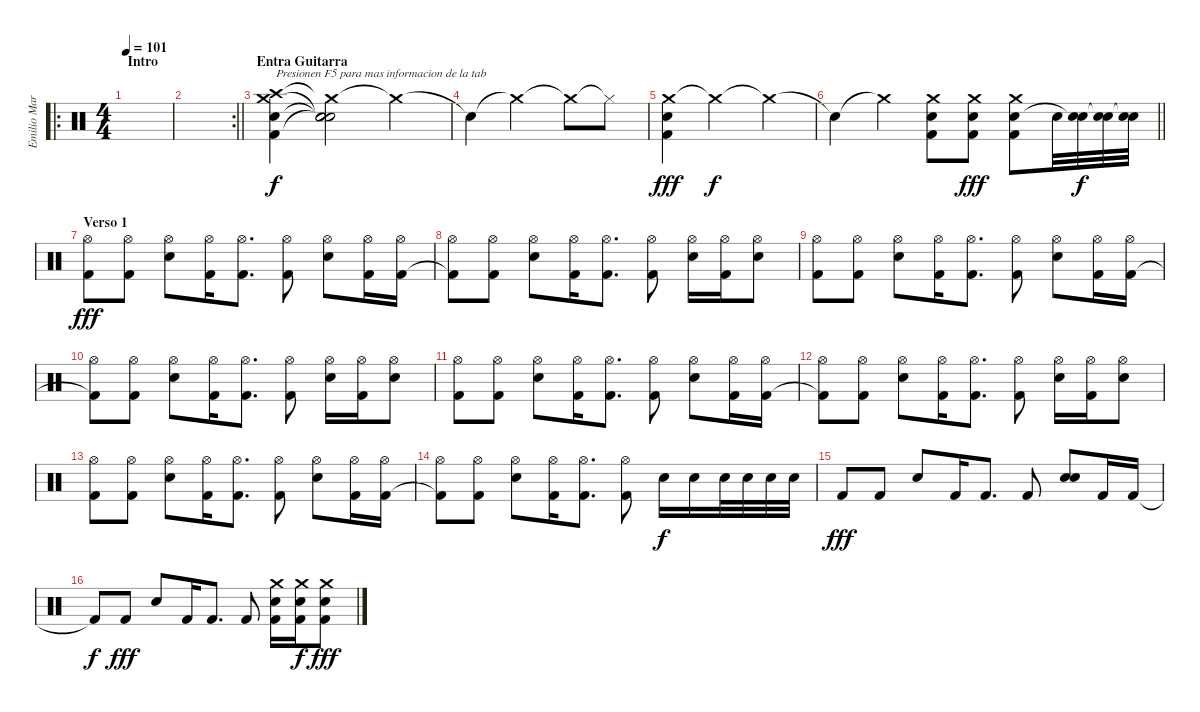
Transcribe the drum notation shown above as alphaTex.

\track ("Emilio Marquez" "Emilio Mar") {instrument percussion}
\staff {score}
\articulation defaults
\ro
\ts (4 4)
\section ("" "Intro")
\tempo 101
\clef neutral
\ks c
|
\rc 2
\barLineRight lightlight
|
\section ("" "Entra Guitarra ")
("Crash high (hit)" "Crash medium (hit)" "Snare (hit) 2" "Kick (hit) 2").4{txt "Presionen F5 para mas informacion de la tab "} ("Crash medium (hit)"{t} "Snare (hit)"{t} "Snare (hit)"{t} "Snare (hit)"{t}).2{dy f} "Crash medium (hit)"{t}.4 |
"Snare (hit)"{t}.4 "Crash medium (hit)"{t}.2 "Crash medium (hit)"{t}.8 "Hi-Hat (closed)"{t}.8 |
("Crash medium (hit)" "Snare (hit) 2" "Kick (hit) 2").4{dy fff} "Crash medium (hit)"{t}.2{dy f} "Crash medium (hit)"{t}.4 |
\barLineRight lightlight "Snare (hit)"{t}.4 "Crash medium (hit)"{t}.4
("Crash medium (hit)" "Snare (hit) 2" "Kick (hit) 2").8 ("Crash medium (hit)" "Snare (hit) 2" "Kick (hit) 2").8{dy fff} ("Crash medium (hit)" "Snare (hit) 2" "Kick (hit) 2").8 "Snare (hit) 2".32 ("Snare (hit) 2" "Snare (hit)"{t}).32{dy f} ("Snare (hit) 2" "Snare (hit)"{t}).32 ("Snare (hit) 2" "Snare (hit)"{t}).32 |
\section ("" "Verso 1")
("Hi-Hat (open)" "Kick (hit) 2").8{dy fff} ("Hi-Hat (open)" "Kick (hit) 2").8 ("Hi-Hat (open)" "Snare (hit) 2").8 ("Hi-Hat (open)" "Kick (hit) 2").16 ("Hi-Hat (open)" "Kick (hit) 2").8{d} ("Hi-Hat (open)" "Kick (hit) 2").8 ("Hi-Hat (open)" "Snare (hit) 2").8 ("Hi-Hat (open)" "Kick (hit) 2").16 ("Hi-Hat (open)" "Kick (hit) 2").16 |
("Hi-Hat (open)" "Kick (hit) 2"{t}).8 ("Hi-Hat (open)" "Kick (hit) 2").8 ("Hi-Hat (open)" "Snare (hit) 2").8 ("Hi-Hat (open)" "Kick (hit) 2").16 ("Hi-Hat (open)" "Kick (hit) 2").8{d} ("Hi-Hat (open)" "Kick (hit) 2").8 ("Hi-Hat (open)" "Snare (hit) 2").16 ("Hi-Hat (open)" "Kick (hit) 2").16 ("Hi-Hat (open)" "Snare (hit) 2").8 |
("Hi-Hat (open)" "Kick (hit) 2").8 ("Hi-Hat (open)" "Kick (hit) 2").8 ("Hi-Hat (open)" "Snare (hit) 2").8 ("Hi-Hat (open)" "Kick (hit) 2").16 ("Hi-Hat (open)" "Kick (hit) 2").8{d} ("Hi-Hat (open)" "Kick (hit) 2").8 ("Hi-Hat (open)" "Snare (hit) 2").8 ("Hi-Hat (open)" "Kick (hit) 2").16 ("Hi-Hat (open)" "Kick (hit) 2").16 |
("Hi-Hat (open)" "Kick (hit) 2"{t}).8 ("Hi-Hat (open)" "Kick (hit) 2").8 ("Hi-Hat (open)" "Snare (hit) 2").8 ("Hi-Hat (open)" "Kick (hit) 2").16 ("Hi-Hat (open)" "Kick (hit) 2").8{d} ("Hi-Hat (open)" "Kick (hit) 2").8 ("Hi-Hat (open)" "Snare (hit) 2").16 ("Hi-Hat (open)" "Kick (hit) 2").16 ("Hi-Hat (open)" "Snare (hit) 2").8 |
("Hi-Hat (open)" "Kick (hit) 2").8 ("Hi-Hat (open)" "Kick (hit) 2").8 ("Hi-Hat (open)" "Snare (hit) 2").8 ("Hi-Hat (open)" "Kick (hit) 2").16 ("Hi-Hat (open)" "Kick (hit) 2").8{d} ("Hi-Hat (open)" "Kick (hit) 2").8 ("Hi-Hat (open)" "Snare (hit) 2").8 ("Hi-Hat (open)" "Kick (hit) 2").16 ("Hi-Hat (open)" "Kick (hit) 2").16 |
("Hi-Hat (open)" "Kick (hit) 2"{t}).8 ("Hi-Hat (open)" "Kick (hit) 2").8 ("Hi-Hat (open)" "Snare (hit) 2").8 ("Hi-Hat (open)" "Kick (hit) 2").16 ("Hi-Hat (open)" "Kick (hit) 2").8{d} ("Hi-Hat (open)" "Kick (hit) 2").8 ("Hi-Hat (open)" "Snare (hit) 2").16 ("Hi-Hat (open)" "Kick (hit) 2").16 ("Hi-Hat (open)" "Snare (hit) 2").8 |
("Hi-Hat (open)" "Kick (hit) 2").8 ("Hi-Hat (open)" "Kick (hit) 2").8 ("Hi-Hat (open)" "Snare (hit) 2").8 ("Hi-Hat (open)" "Kick (hit) 2").16 ("Hi-Hat (open)" "Kick (hit) 2").8{d} ("Hi-Hat (open)" "Kick (hit) 2").8 ("Hi-Hat (open)" "Snare (hit) 2").8 ("Hi-Hat (open)" "Kick (hit) 2").16 ("Hi-Hat (open)" "Kick (hit) 2").16 |
("Hi-Hat (open)" "Kick (hit) 2"{t}).8 ("Hi-Hat (open)" "Kick (hit) 2").8 ("Hi-Hat (open)" "Snare (hit) 2").8 ("Hi-Hat (open)" "Kick (hit) 2").16 ("Hi-Hat (open)" "Kick (hit) 2").8{d} ("Hi-Hat (open)" "Kick (hit) 2").8 "Snare (hit) 2".16{dy f} "Snare (hit) 2".16 "Snare (hit) 2".32 "Snare (hit) 2".32 "Snare (hit) 2".32 "Snare (hit) 2".32 |
"Kick (hit) 2".8{dy fff} "Kick (hit) 2".8 "Snare (hit) 2".8 "Kick (hit) 2".16 "Kick (hit) 2".8{d} "Kick (hit) 2".8 ("Snare (hit) 2" "Snare (hit)").8 "Kick (hit) 2".16 "Kick (hit) 2".16 |
"Kick (hit) 2"{t}.8{dy f} "Kick (hit) 2".8{dy fff} "Snare (hit) 2".8 "Kick (hit) 2".16 "Kick (hit) 2".8{d} "Kick (hit) 2".8 ("Crash medium (hit)" "Snare (hit) 2" "Kick (hit) 2").16 ("Crash medium (hit)" "Snare (hit) 2" "Kick (hit) 2").16{dy f} ("Crash medium (hit)" "Snare (hit) 2" "Kick (hit) 2").8{dy fff}
